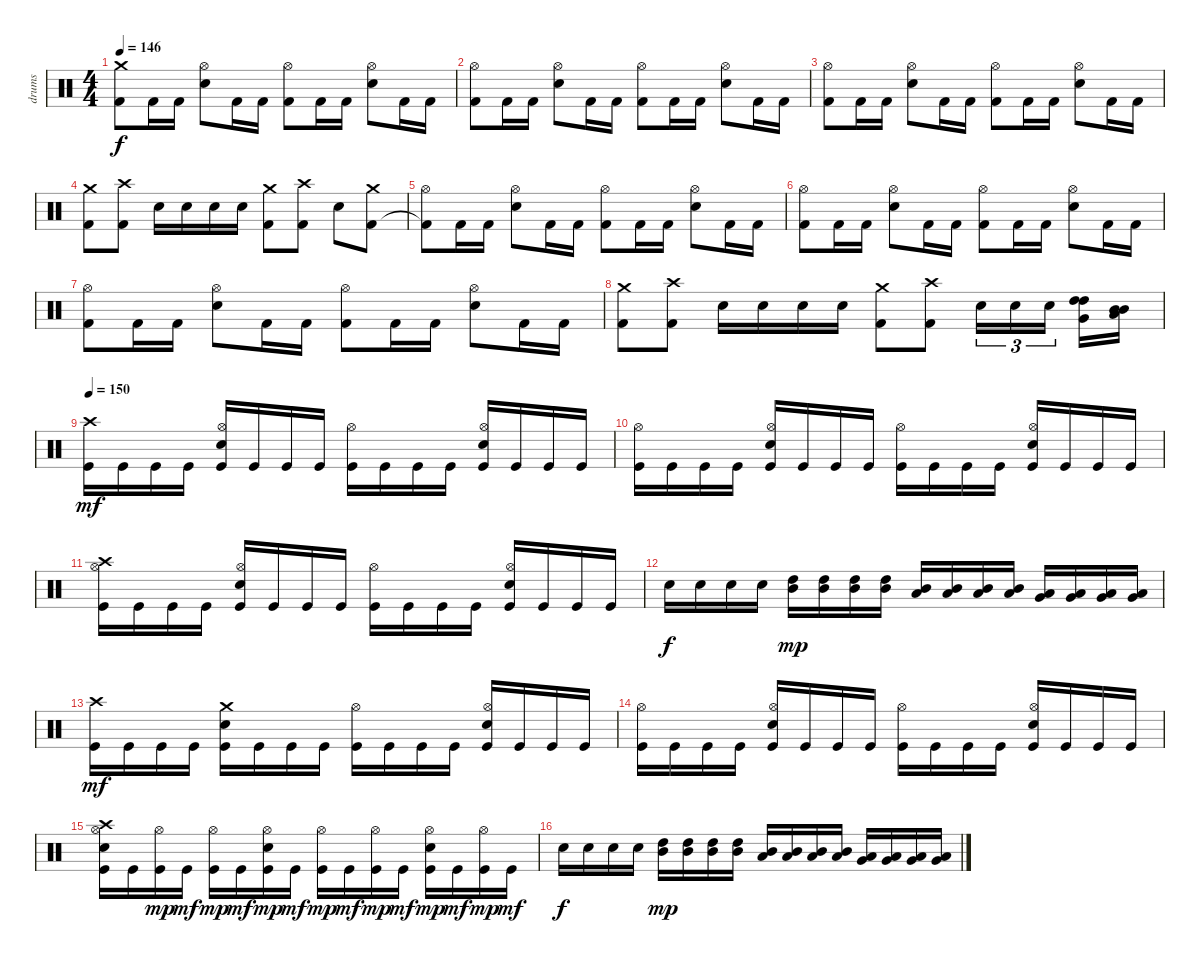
\track ("drums" "drums") {instrument percussion}
\staff {score}
\articulation defaults
\ts (4 4)
\tempo 146
\clef neutral
\ks c
("Kick (hit) 2" "Crash medium (hit)").8{dy f} "Kick (hit) 2".16 "Kick (hit) 2".16 ("Electric Snare (hit)" "Hi-Hat (open)").8 "Kick (hit) 2".16 "Kick (hit) 2".16 ("Kick (hit) 2" "Hi-Hat (open)").8 "Kick (hit) 2".16 "Kick (hit) 2".16 ("Electric Snare (hit)" "Hi-Hat (open)").8 "Kick (hit) 2".16 "Kick (hit) 2".16 |
("Kick (hit) 2" "Hi-Hat (open)").8 "Kick (hit) 2".16 "Kick (hit) 2".16 ("Electric Snare (hit)" "Hi-Hat (open)").8 "Kick (hit) 2".16 "Kick (hit) 2".16 ("Kick (hit) 2" "Hi-Hat (open)").8 "Kick (hit) 2".16 "Kick (hit) 2".16 ("Electric Snare (hit)" "Hi-Hat (open)").8 "Kick (hit) 2".16 "Kick (hit) 2".16 |
("Kick (hit) 2" "Hi-Hat (open)").8 "Kick (hit) 2".16 "Kick (hit) 2".16 ("Electric Snare (hit)" "Hi-Hat (open)").8 "Kick (hit) 2".16 "Kick (hit) 2".16 ("Kick (hit) 2" "Hi-Hat (open)").8 "Kick (hit) 2".16 "Kick (hit) 2".16 ("Electric Snare (hit)" "Hi-Hat (open)").8 "Kick (hit) 2".16 "Kick (hit) 2".16 |
("Kick (hit) 2" "Crash medium (hit)").8 ("Kick (hit) 2" "Crash high (hit)").8 "Electric Snare (hit)".16 "Electric Snare (hit)".16 "Electric Snare (hit)".16 "Electric Snare (hit)".16 ("Kick (hit) 2" "Crash medium (hit)").8 ("Kick (hit) 2" "Crash high (hit)").8 "Electric Snare (hit)".8 ("Kick (hit) 2" "Crash medium (hit)").8 |
("Kick (hit) 2"{t} "Hi-Hat (open)").8 "Kick (hit) 2".16 "Kick (hit) 2".16 ("Electric Snare (hit)" "Hi-Hat (open)").8 "Kick (hit) 2".16 "Kick (hit) 2".16 ("Kick (hit) 2" "Hi-Hat (open)").8 "Kick (hit) 2".16 "Kick (hit) 2".16 ("Electric Snare (hit)" "Hi-Hat (open)").8 "Kick (hit) 2".16 "Kick (hit) 2".16 |
("Kick (hit) 2" "Hi-Hat (open)").8 "Kick (hit) 2".16 "Kick (hit) 2".16 ("Electric Snare (hit)" "Hi-Hat (open)").8 "Kick (hit) 2".16 "Kick (hit) 2".16 ("Kick (hit) 2" "Hi-Hat (open)").8 "Kick (hit) 2".16 "Kick (hit) 2".16 ("Electric Snare (hit)" "Hi-Hat (open)").8 "Kick (hit) 2".16 "Kick (hit) 2".16 |
("Kick (hit) 2" "Hi-Hat (open)").8 "Kick (hit) 2".16 "Kick (hit) 2".16 ("Electric Snare (hit)" "Hi-Hat (open)").8 "Kick (hit) 2".16 "Kick (hit) 2".16 ("Kick (hit) 2" "Hi-Hat (open)").8 "Kick (hit) 2".16 "Kick (hit) 2".16 ("Electric Snare (hit)" "Hi-Hat (open)").8 "Kick (hit) 2".16 "Kick (hit) 2".16 |
("Kick (hit) 2" "Crash medium (hit)").8 ("Kick (hit) 2" "Crash high (hit)").8 "Electric Snare (hit)".16 "Electric Snare (hit)".16 "Electric Snare (hit)".16 "Electric Snare (hit)".16 ("Kick (hit) 2" "Crash medium (hit)").8 ("Kick (hit) 2" "Crash high (hit)").8 "Electric Snare (hit)".16{tu (3 2)} "Electric Snare (hit)".16{tu (3 2)} "Electric Snare (hit)".16{tu (3 2)} ("High Tom (hit)" "High Tom (hit)" "Very Low Tom (hit)").16 ("Mid Tom (hit)" "Mid Tom (hit)" "Low Tom (hit)").16 |
\tempo 150
("Kick (hit)" "Crash high (hit)").16{dy mf} "Kick (hit)".16 "Kick (hit)".16 "Kick (hit)".16 ("Kick (hit)" "Electric Snare (hit)" "Hi-Hat (open)").16 "Kick (hit)".16 "Kick (hit)".16 "Kick (hit)".16 ("Kick (hit)" "Hi-Hat (open)").16 "Kick (hit)".16 "Kick (hit)".16 "Kick (hit)".16 ("Kick (hit)" "Electric Snare (hit)" "Hi-Hat (open)").16 "Kick (hit)".16 "Kick (hit)".16 "Kick (hit)".16 |
("Kick (hit)" "Hi-Hat (open)").16 "Kick (hit)".16 "Kick (hit)".16 "Kick (hit)".16 ("Kick (hit)" "Electric Snare (hit)" "Hi-Hat (open)").16 "Kick (hit)".16 "Kick (hit)".16 "Kick (hit)".16 ("Kick (hit)" "Hi-Hat (open)").16 "Kick (hit)".16 "Kick (hit)".16 "Kick (hit)".16 ("Kick (hit)" "Electric Snare (hit)" "Hi-Hat (open)").16 "Kick (hit)".16 "Kick (hit)".16 "Kick (hit)".16 |
("Kick (hit)" "Hi-Hat (open)" "Crash high (hit)").16 "Kick (hit)".16 "Kick (hit)".16 "Kick (hit)".16 ("Kick (hit)" "Electric Snare (hit)" "Hi-Hat (open)").16 "Kick (hit)".16 "Kick (hit)".16 "Kick (hit)".16 ("Kick (hit)" "Hi-Hat (open)").16 "Kick (hit)".16 "Kick (hit)".16 "Kick (hit)".16 ("Kick (hit)" "Electric Snare (hit)" "Hi-Hat (open)").16 "Kick (hit)".16 "Kick (hit)".16 "Kick (hit)".16 |
"Electric Snare (hit)".16{dy f} "Electric Snare (hit)".16 "Electric Snare (hit)".16 "Electric Snare (hit)".16 ("High Tom (hit)" "Mid Tom (hit)").16{dy mp} ("High Tom (hit)" "Mid Tom (hit)").16 ("High Tom (hit)" "Mid Tom (hit)").16 ("High Tom (hit)" "Mid Tom (hit)").16 ("Mid Tom (hit)" "Low Tom (hit)").16 ("Mid Tom (hit)" "Low Tom (hit)").16 ("Mid Tom (hit)" "Low Tom (hit)").16 ("Mid Tom (hit)" "Low Tom (hit)").16 ("Low Tom (hit)" "Very Low Tom (hit)").16 ("Low Tom (hit)" "Very Low Tom (hit)").16 ("Low Tom (hit)" "Very Low Tom (hit)").16 ("Low Tom (hit)" "Very Low Tom (hit)").16 |
("Kick (hit)" "Crash high (hit)").16{dy mf} "Kick (hit)".16 "Kick (hit)".16 "Kick (hit)".16 ("Kick (hit)" "Electric Snare (hit)" "Crash medium (hit)").16 "Kick (hit)".16 "Kick (hit)".16 "Kick (hit)".16 ("Kick (hit)" "Hi-Hat (open)").16 "Kick (hit)".16 "Kick (hit)".16 "Kick (hit)".16 ("Kick (hit)" "Electric Snare (hit)" "Hi-Hat (open)").16 "Kick (hit)".16 "Kick (hit)".16 "Kick (hit)".16 |
("Kick (hit)" "Hi-Hat (open)").16 "Kick (hit)".16 "Kick (hit)".16 "Kick (hit)".16 ("Kick (hit)" "Electric Snare (hit)" "Hi-Hat (open)").16 "Kick (hit)".16 "Kick (hit)".16 "Kick (hit)".16 ("Kick (hit)" "Hi-Hat (open)").16 "Kick (hit)".16 "Kick (hit)".16 "Kick (hit)".16 ("Kick (hit)" "Electric Snare (hit)" "Hi-Hat (open)").16 "Kick (hit)".16 "Kick (hit)".16 "Kick (hit)".16 |
("Kick (hit)" "Electric Snare (hit)" "Hi-Hat (open)" "Crash high (hit)").16 "Kick (hit)".16 ("Kick (hit)" "Hi-Hat (open)").16{dy mp} "Kick (hit)".16{dy mf} ("Kick (hit)" "Hi-Hat (open)").16{dy mp} "Kick (hit)".16{dy mf} ("Kick (hit)" "Electric Snare (hit)" "Hi-Hat (open)").16{dy mp} "Kick (hit)".16{dy mf} ("Kick (hit)" "Hi-Hat (open)").16{dy mp} "Kick (hit)".16{dy mf} ("Kick (hit)" "Hi-Hat (open)").16{dy mp} "Kick (hit)".16{dy mf} ("Kick (hit)" "Electric Snare (hit)" "Hi-Hat (open)").16{dy mp} "Kick (hit)".16{dy mf} ("Kick (hit)" "Hi-Hat (open)").16{dy mp} "Kick (hit)".16{dy mf} |
"Electric Snare (hit)".16{dy f} "Electric Snare (hit)".16 "Electric Snare (hit)".16 "Electric Snare (hit)".16 ("High Tom (hit)" "Mid Tom (hit)").16{dy mp} ("High Tom (hit)" "Mid Tom (hit)").16 ("High Tom (hit)" "Mid Tom (hit)").16 ("High Tom (hit)" "Mid Tom (hit)").16 ("Mid Tom (hit)" "Low Tom (hit)").16 ("Mid Tom (hit)" "Low Tom (hit)").16 ("Mid Tom (hit)" "Low Tom (hit)").16 ("Mid Tom (hit)" "Low Tom (hit)").16 ("Low Tom (hit)" "Very Low Tom (hit)").16 ("Low Tom (hit)" "Very Low Tom (hit)").16 ("Low Tom (hit)" "Very Low Tom (hit)").16 ("Low Tom (hit)" "Very Low Tom (hit)").16
